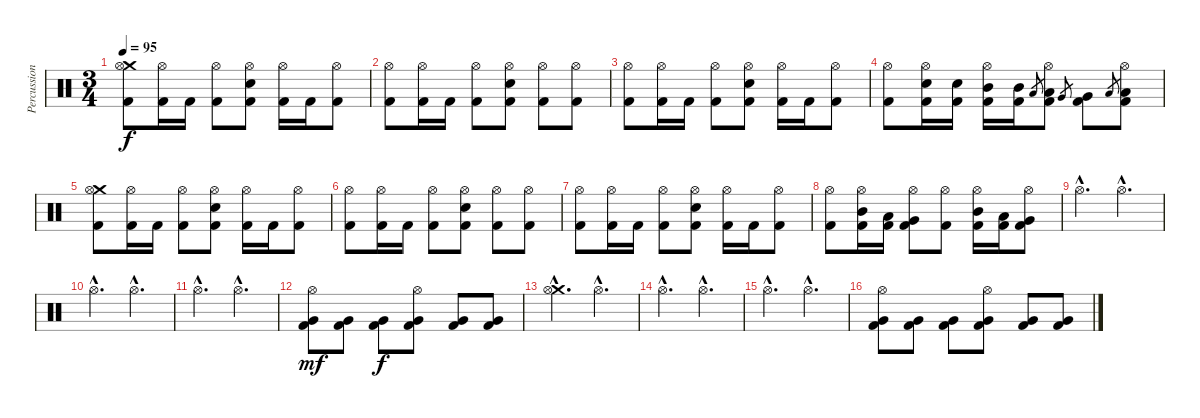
\track ("Percussion" "Percussion") {instrument percussion}
\staff {score}
\articulation defaults
\ts (3 4)
\tempo 95
\clef neutral
\ks c
("Crash medium (hit)" "Hi-Hat (open)" "Kick (hit) 2").8{dy f} ("Hi-Hat (open)" "Kick (hit) 2").16 "Kick (hit) 2".16 ("Hi-Hat (open)" "Kick (hit) 2").8 ("Hi-Hat (open)" "Electric Snare (hit)" "Kick (hit) 2").8 ("Hi-Hat (open)" "Kick (hit) 2").16 "Kick (hit) 2".16 ("Hi-Hat (open)" "Kick (hit) 2").8 |
("Hi-Hat (open)" "Kick (hit) 2").8 ("Hi-Hat (open)" "Kick (hit) 2").16 "Kick (hit) 2".16 ("Hi-Hat (open)" "Kick (hit) 2").8 ("Hi-Hat (open)" "Electric Snare (hit)" "Kick (hit) 2").8 ("Hi-Hat (open)" "Kick (hit) 2").8 ("Hi-Hat (open)" "Kick (hit) 2").8 |
("Hi-Hat (open)" "Kick (hit) 2").8 ("Hi-Hat (open)" "Kick (hit) 2").16 "Kick (hit) 2".16 ("Hi-Hat (open)" "Kick (hit) 2").8 ("Hi-Hat (open)" "Electric Snare (hit)" "Kick (hit) 2").8 ("Hi-Hat (open)" "Kick (hit) 2").16 "Kick (hit) 2".16 ("Hi-Hat (open)" "Kick (hit) 2").8 |
("Hi-Hat (open)" "Kick (hit) 2").8 ("Hi-Hat (open)" "Electric Snare (hit)" "Kick (hit) 2").16 ("Electric Snare (hit)" "Kick (hit) 2").16 ("Hi-Hat (open)" "Mid Tom (hit)" "Kick (hit) 2").16 ("Mid Tom (hit)" "Kick (hit) 2").16 "Low Tom (hit)".8{gr} ("Hi-Hat (open)" "Low Tom (hit)" "Kick (hit) 2").8 "Very Low Tom (hit)".8{gr} ("Very Low Tom (hit)" "Kick (hit) 2").8 "Low Floor Tom (hit)".8{gr} ("Hi-Hat (open)" "Low Floor Tom (hit)" "Kick (hit) 2").8 |
("Crash medium (hit)" "Hi-Hat (open)" "Kick (hit) 2").8 ("Hi-Hat (open)" "Kick (hit) 2").16 "Kick (hit) 2".16 ("Hi-Hat (open)" "Kick (hit) 2").8 ("Hi-Hat (open)" "Electric Snare (hit)" "Kick (hit) 2").8 ("Hi-Hat (open)" "Kick (hit) 2").16 "Kick (hit) 2".16 ("Hi-Hat (open)" "Kick (hit) 2").8 |
("Hi-Hat (open)" "Kick (hit) 2").8 ("Hi-Hat (open)" "Kick (hit) 2").16 "Kick (hit) 2".16 ("Hi-Hat (open)" "Kick (hit) 2").8 ("Hi-Hat (open)" "Electric Snare (hit)" "Kick (hit) 2").8 ("Hi-Hat (open)" "Kick (hit) 2").8 ("Hi-Hat (open)" "Kick (hit) 2").8 |
("Hi-Hat (open)" "Kick (hit) 2").8 ("Hi-Hat (open)" "Kick (hit) 2").16 "Kick (hit) 2".16 ("Hi-Hat (open)" "Kick (hit) 2").8 ("Hi-Hat (open)" "Electric Snare (hit)" "Kick (hit) 2").8 ("Hi-Hat (open)" "Kick (hit) 2").16 "Kick (hit) 2".16 ("Hi-Hat (open)" "Kick (hit) 2").8 |
("Hi-Hat (open)" "Kick (hit) 2").8 ("Hi-Hat (open)" "Mid Tom (hit)" "Kick (hit) 2").16 ("Low Tom (hit)" "Kick (hit) 2").16 ("Hi-Hat (open)" "Very Low Tom (hit)" "Kick (hit) 2").8 ("Hi-Hat (open)" "Kick (hit) 2").8 ("Hi-Hat (open)" "Mid Tom (hit)" "Kick (hit) 2").16 ("Low Tom (hit)" "Kick (hit) 2").16 ("Hi-Hat (open)" "Very Low Tom (hit)" "Kick (hit) 2").8 |
"Hi-Hat (open)"{hac}.4{d} "Hi-Hat (open)"{hac}.4{d} |
"Hi-Hat (open)"{hac}.4{d} "Hi-Hat (open)"{hac}.4{d} |
"Hi-Hat (open)"{hac}.4{d} "Hi-Hat (open)"{hac}.4{d} |
("Hi-Hat (open)" "Very Low Tom (hit)" "Kick (hit) 2").8{dy mf} ("Very Low Tom (hit)" "Kick (hit) 2").8 ("Very Low Tom (hit)" "Kick (hit) 2").8{dy f} ("Hi-Hat (open)" "Very Low Tom (hit)" "Kick (hit) 2").8 ("Very Low Tom (hit)" "Kick (hit) 2").8 ("Very Low Tom (hit)" "Kick (hit) 2").8 |
("Crash medium (hit)"{hac} "Hi-Hat (open)"{hac}).4{d} "Hi-Hat (open)"{hac}.4{d} |
"Hi-Hat (open)"{hac}.4{d} "Hi-Hat (open)"{hac}.4{d} |
"Hi-Hat (open)"{hac}.4{d} "Hi-Hat (open)"{hac}.4{d} |
("Hi-Hat (open)" "Very Low Tom (hit)" "Kick (hit) 2").8 ("Very Low Tom (hit)" "Kick (hit) 2").8 ("Very Low Tom (hit)" "Kick (hit) 2").8 ("Hi-Hat (open)" "Very Low Tom (hit)" "Kick (hit) 2").8 ("Very Low Tom (hit)" "Kick (hit) 2").8 ("Very Low Tom (hit)" "Kick (hit) 2").8
